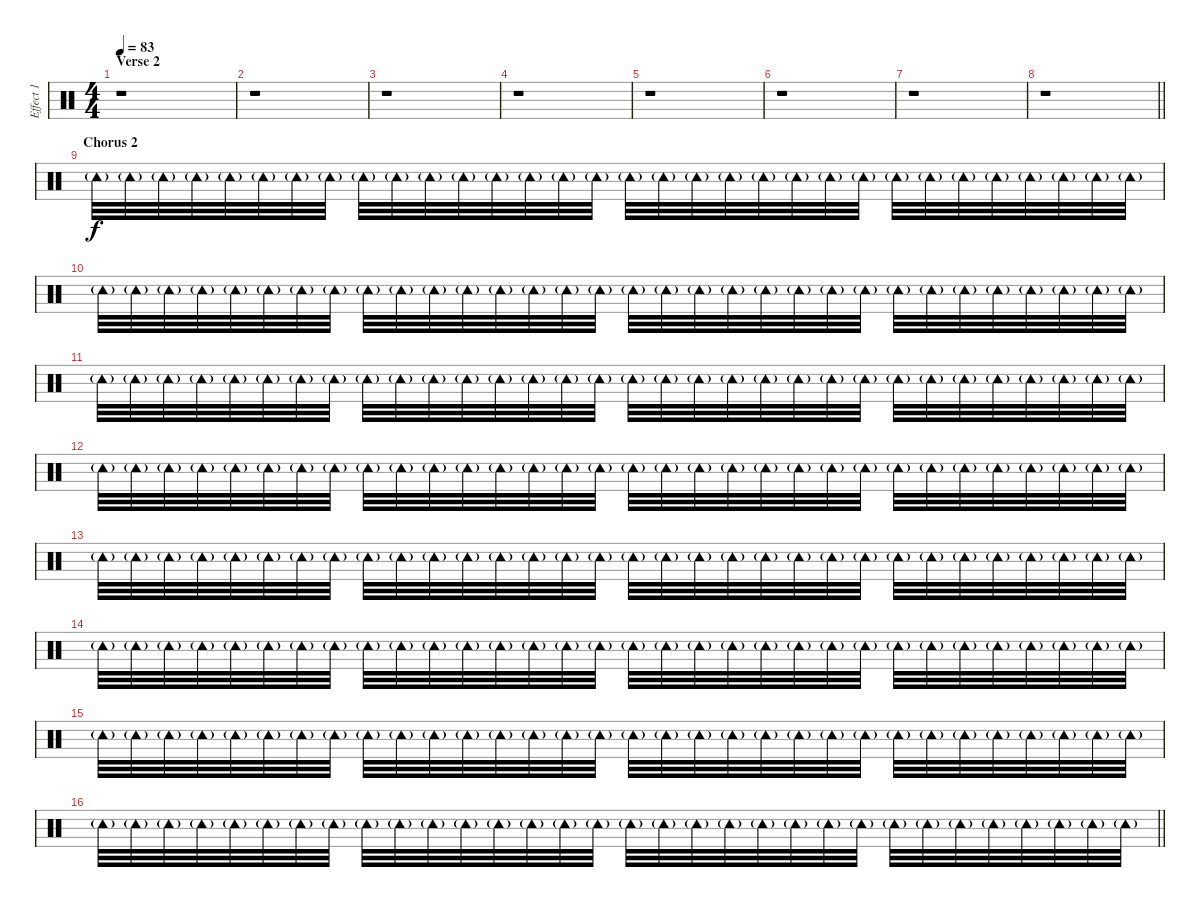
\track ("Effect 1" "Effect 1") {instrument percussion}
\staff {score}
\articulation defaults
\ts (4 4)
\section ("" "Verse 2")
\tempo 83
\clef neutral
\ks c
r.1{dy f} |
r.1 |
r.1 |
r.1 |
r.1 |
r.1 |
r.1 |
\barLineRight lightlight
r.1 |
\section ("" "Chorus 2")
"Tambourine (hit)"{g}.32 "Tambourine (hit)"{g}.32 "Tambourine (hit)"{g}.32 "Tambourine (hit)"{g}.32 "Tambourine (hit)"{g}.32 "Tambourine (hit)"{g}.32 "Tambourine (hit)"{g}.32 "Tambourine (hit)"{g}.32 "Tambourine (hit)"{g}.32 "Tambourine (hit)"{g}.32 "Tambourine (hit)"{g}.32 "Tambourine (hit)"{g}.32 "Tambourine (hit)"{g}.32 "Tambourine (hit)"{g}.32 "Tambourine (hit)"{g}.32 "Tambourine (hit)"{g}.32 "Tambourine (hit)"{g}.32 "Tambourine (hit)"{g}.32 "Tambourine (hit)"{g}.32 "Tambourine (hit)"{g}.32 "Tambourine (hit)"{g}.32 "Tambourine (hit)"{g}.32 "Tambourine (hit)"{g}.32 "Tambourine (hit)"{g}.32 "Tambourine (hit)"{g}.32 "Tambourine (hit)"{g}.32 "Tambourine (hit)"{g}.32 "Tambourine (hit)"{g}.32 "Tambourine (hit)"{g}.32 "Tambourine (hit)"{g}.32 "Tambourine (hit)"{g}.32 "Tambourine (hit)"{g}.32 |
"Tambourine (hit)"{g}.32 "Tambourine (hit)"{g}.32 "Tambourine (hit)"{g}.32 "Tambourine (hit)"{g}.32 "Tambourine (hit)"{g}.32 "Tambourine (hit)"{g}.32 "Tambourine (hit)"{g}.32 "Tambourine (hit)"{g}.32 "Tambourine (hit)"{g}.32 "Tambourine (hit)"{g}.32 "Tambourine (hit)"{g}.32 "Tambourine (hit)"{g}.32 "Tambourine (hit)"{g}.32 "Tambourine (hit)"{g}.32 "Tambourine (hit)"{g}.32 "Tambourine (hit)"{g}.32 "Tambourine (hit)"{g}.32 "Tambourine (hit)"{g}.32 "Tambourine (hit)"{g}.32 "Tambourine (hit)"{g}.32 "Tambourine (hit)"{g}.32 "Tambourine (hit)"{g}.32 "Tambourine (hit)"{g}.32 "Tambourine (hit)"{g}.32 "Tambourine (hit)"{g}.32 "Tambourine (hit)"{g}.32 "Tambourine (hit)"{g}.32 "Tambourine (hit)"{g}.32 "Tambourine (hit)"{g}.32 "Tambourine (hit)"{g}.32 "Tambourine (hit)"{g}.32 "Tambourine (hit)"{g}.32 |
"Tambourine (hit)"{g}.32 "Tambourine (hit)"{g}.32 "Tambourine (hit)"{g}.32 "Tambourine (hit)"{g}.32 "Tambourine (hit)"{g}.32 "Tambourine (hit)"{g}.32 "Tambourine (hit)"{g}.32 "Tambourine (hit)"{g}.32 "Tambourine (hit)"{g}.32 "Tambourine (hit)"{g}.32 "Tambourine (hit)"{g}.32 "Tambourine (hit)"{g}.32 "Tambourine (hit)"{g}.32 "Tambourine (hit)"{g}.32 "Tambourine (hit)"{g}.32 "Tambourine (hit)"{g}.32 "Tambourine (hit)"{g}.32 "Tambourine (hit)"{g}.32 "Tambourine (hit)"{g}.32 "Tambourine (hit)"{g}.32 "Tambourine (hit)"{g}.32 "Tambourine (hit)"{g}.32 "Tambourine (hit)"{g}.32 "Tambourine (hit)"{g}.32 "Tambourine (hit)"{g}.32 "Tambourine (hit)"{g}.32 "Tambourine (hit)"{g}.32 "Tambourine (hit)"{g}.32 "Tambourine (hit)"{g}.32 "Tambourine (hit)"{g}.32 "Tambourine (hit)"{g}.32 "Tambourine (hit)"{g}.32 |
"Tambourine (hit)"{g}.32 "Tambourine (hit)"{g}.32 "Tambourine (hit)"{g}.32 "Tambourine (hit)"{g}.32 "Tambourine (hit)"{g}.32 "Tambourine (hit)"{g}.32 "Tambourine (hit)"{g}.32 "Tambourine (hit)"{g}.32 "Tambourine (hit)"{g}.32 "Tambourine (hit)"{g}.32 "Tambourine (hit)"{g}.32 "Tambourine (hit)"{g}.32 "Tambourine (hit)"{g}.32 "Tambourine (hit)"{g}.32 "Tambourine (hit)"{g}.32 "Tambourine (hit)"{g}.32 "Tambourine (hit)"{g}.32 "Tambourine (hit)"{g}.32 "Tambourine (hit)"{g}.32 "Tambourine (hit)"{g}.32 "Tambourine (hit)"{g}.32 "Tambourine (hit)"{g}.32 "Tambourine (hit)"{g}.32 "Tambourine (hit)"{g}.32 "Tambourine (hit)"{g}.32 "Tambourine (hit)"{g}.32 "Tambourine (hit)"{g}.32 "Tambourine (hit)"{g}.32 "Tambourine (hit)"{g}.32 "Tambourine (hit)"{g}.32 "Tambourine (hit)"{g}.32 "Tambourine (hit)"{g}.32 |
"Tambourine (hit)"{g}.32 "Tambourine (hit)"{g}.32 "Tambourine (hit)"{g}.32 "Tambourine (hit)"{g}.32 "Tambourine (hit)"{g}.32 "Tambourine (hit)"{g}.32 "Tambourine (hit)"{g}.32 "Tambourine (hit)"{g}.32 "Tambourine (hit)"{g}.32 "Tambourine (hit)"{g}.32 "Tambourine (hit)"{g}.32 "Tambourine (hit)"{g}.32 "Tambourine (hit)"{g}.32 "Tambourine (hit)"{g}.32 "Tambourine (hit)"{g}.32 "Tambourine (hit)"{g}.32 "Tambourine (hit)"{g}.32 "Tambourine (hit)"{g}.32 "Tambourine (hit)"{g}.32 "Tambourine (hit)"{g}.32 "Tambourine (hit)"{g}.32 "Tambourine (hit)"{g}.32 "Tambourine (hit)"{g}.32 "Tambourine (hit)"{g}.32 "Tambourine (hit)"{g}.32 "Tambourine (hit)"{g}.32 "Tambourine (hit)"{g}.32 "Tambourine (hit)"{g}.32 "Tambourine (hit)"{g}.32 "Tambourine (hit)"{g}.32 "Tambourine (hit)"{g}.32 "Tambourine (hit)"{g}.32 |
"Tambourine (hit)"{g}.32 "Tambourine (hit)"{g}.32 "Tambourine (hit)"{g}.32 "Tambourine (hit)"{g}.32 "Tambourine (hit)"{g}.32 "Tambourine (hit)"{g}.32 "Tambourine (hit)"{g}.32 "Tambourine (hit)"{g}.32 "Tambourine (hit)"{g}.32 "Tambourine (hit)"{g}.32 "Tambourine (hit)"{g}.32 "Tambourine (hit)"{g}.32 "Tambourine (hit)"{g}.32 "Tambourine (hit)"{g}.32 "Tambourine (hit)"{g}.32 "Tambourine (hit)"{g}.32 "Tambourine (hit)"{g}.32 "Tambourine (hit)"{g}.32 "Tambourine (hit)"{g}.32 "Tambourine (hit)"{g}.32 "Tambourine (hit)"{g}.32 "Tambourine (hit)"{g}.32 "Tambourine (hit)"{g}.32 "Tambourine (hit)"{g}.32 "Tambourine (hit)"{g}.32 "Tambourine (hit)"{g}.32 "Tambourine (hit)"{g}.32 "Tambourine (hit)"{g}.32 "Tambourine (hit)"{g}.32 "Tambourine (hit)"{g}.32 "Tambourine (hit)"{g}.32 "Tambourine (hit)"{g}.32 |
"Tambourine (hit)"{g}.32 "Tambourine (hit)"{g}.32 "Tambourine (hit)"{g}.32 "Tambourine (hit)"{g}.32 "Tambourine (hit)"{g}.32 "Tambourine (hit)"{g}.32 "Tambourine (hit)"{g}.32 "Tambourine (hit)"{g}.32 "Tambourine (hit)"{g}.32 "Tambourine (hit)"{g}.32 "Tambourine (hit)"{g}.32 "Tambourine (hit)"{g}.32 "Tambourine (hit)"{g}.32 "Tambourine (hit)"{g}.32 "Tambourine (hit)"{g}.32 "Tambourine (hit)"{g}.32 "Tambourine (hit)"{g}.32 "Tambourine (hit)"{g}.32 "Tambourine (hit)"{g}.32 "Tambourine (hit)"{g}.32 "Tambourine (hit)"{g}.32 "Tambourine (hit)"{g}.32 "Tambourine (hit)"{g}.32 "Tambourine (hit)"{g}.32 "Tambourine (hit)"{g}.32 "Tambourine (hit)"{g}.32 "Tambourine (hit)"{g}.32 "Tambourine (hit)"{g}.32 "Tambourine (hit)"{g}.32 "Tambourine (hit)"{g}.32 "Tambourine (hit)"{g}.32 "Tambourine (hit)"{g}.32 |
\barLineRight lightlight "Tambourine (hit)"{g}.32 "Tambourine (hit)"{g}.32 "Tambourine (hit)"{g}.32 "Tambourine (hit)"{g}.32 "Tambourine (hit)"{g}.32 "Tambourine (hit)"{g}.32 "Tambourine (hit)"{g}.32 "Tambourine (hit)"{g}.32 "Tambourine (hit)"{g}.32 "Tambourine (hit)"{g}.32 "Tambourine (hit)"{g}.32 "Tambourine (hit)"{g}.32 "Tambourine (hit)"{g}.32 "Tambourine (hit)"{g}.32 "Tambourine (hit)"{g}.32 "Tambourine (hit)"{g}.32 "Tambourine (hit)"{g}.32 "Tambourine (hit)"{g}.32 "Tambourine (hit)"{g}.32 "Tambourine (hit)"{g}.32 "Tambourine (hit)"{g}.32 "Tambourine (hit)"{g}.32 "Tambourine (hit)"{g}.32 "Tambourine (hit)"{g}.32 "Tambourine (hit)"{g}.32 "Tambourine (hit)"{g}.32 "Tambourine (hit)"{g}.32 "Tambourine (hit)"{g}.32 "Tambourine (hit)"{g}.32 "Tambourine (hit)"{g}.32 "Tambourine (hit)"{g}.32 "Tambourine (hit)"{g}.32
